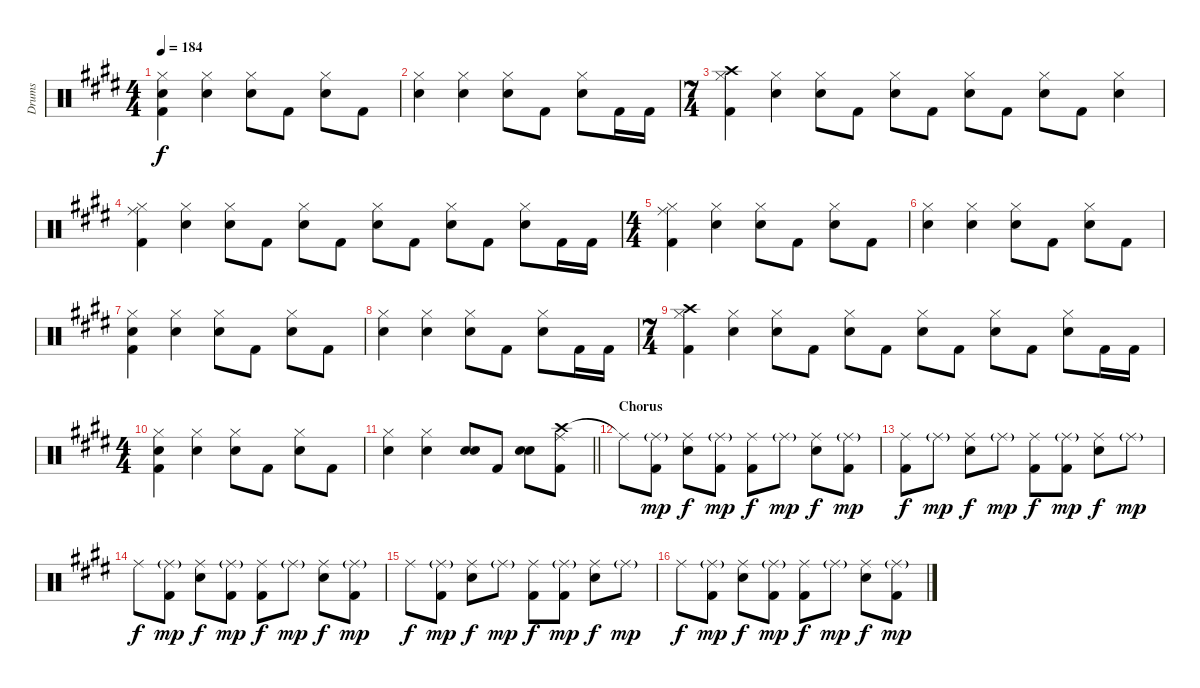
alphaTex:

\track ("Drums" "Drums") {instrument percussion}
\staff {score}
\articulation defaults
\ts (4 4)
\tempo 184
\clef neutral
\ks c#minor
("Hi-Hat (closed)" "Snare (hit) 2" "Kick (hit) 2").4{dy f} ("Hi-Hat (closed)" "Snare (hit) 2").4 ("Hi-Hat (closed)" "Snare (hit) 2").8 "Kick (hit) 2".8 ("Hi-Hat (closed)" "Snare (hit) 2").8 "Kick (hit) 2".8 |
("Hi-Hat (closed)" "Snare (hit) 2").4 ("Hi-Hat (closed)" "Snare (hit) 2").4 ("Hi-Hat (closed)" "Snare (hit) 2").8 "Kick (hit) 2".8 ("Hi-Hat (closed)" "Snare (hit) 2").8 "Kick (hit) 2".16 "Kick (hit) 2".16 |
\ts (7 4)
("Crash high (hit)" "Hi-Hat (closed)" "Kick (hit) 2").4 ("Hi-Hat (closed)" "Snare (hit) 2").4 ("Hi-Hat (closed)" "Snare (hit) 2").8 "Kick (hit) 2".8 ("Hi-Hat (closed)" "Snare (hit) 2").8 "Kick (hit) 2".8 ("Hi-Hat (closed)" "Snare (hit) 2").8 "Kick (hit) 2".8 ("Hi-Hat (closed)" "Snare (hit) 2").8 "Kick (hit) 2".8 ("Hi-Hat (closed)" "Snare (hit) 2").4 |
("Ride (middle)" "Hi-Hat (closed)" "Kick (hit) 2").4 ("Hi-Hat (closed)" "Snare (hit) 2").4 ("Hi-Hat (closed)" "Snare (hit) 2").8 "Kick (hit) 2".8 ("Hi-Hat (closed)" "Snare (hit) 2").8 "Kick (hit) 2".8 ("Hi-Hat (closed)" "Snare (hit) 2").8 "Kick (hit) 2".8 ("Hi-Hat (closed)" "Snare (hit) 2").8 "Kick (hit) 2".8 ("Hi-Hat (closed)" "Snare (hit) 2").8 "Kick (hit) 2".16 "Kick (hit) 2".16 |
\ts (4 4)
("Ride (middle)" "Hi-Hat (closed)" "Kick (hit) 2").4 ("Hi-Hat (closed)" "Snare (hit) 2").4 ("Hi-Hat (closed)" "Snare (hit) 2").8 "Kick (hit) 2".8 ("Hi-Hat (closed)" "Snare (hit) 2").8 "Kick (hit) 2".8 |
("Hi-Hat (closed)" "Snare (hit) 2").4 ("Hi-Hat (closed)" "Snare (hit) 2").4 ("Hi-Hat (closed)" "Snare (hit) 2").8 "Kick (hit) 2".8 ("Hi-Hat (closed)" "Snare (hit) 2").8 "Kick (hit) 2".8 |
("Hi-Hat (closed)" "Snare (hit) 2" "Kick (hit) 2").4 ("Hi-Hat (closed)" "Snare (hit) 2").4 ("Hi-Hat (closed)" "Snare (hit) 2").8 "Kick (hit) 2".8 ("Hi-Hat (closed)" "Snare (hit) 2").8 "Kick (hit) 2".8 |
("Hi-Hat (closed)" "Snare (hit) 2").4 ("Hi-Hat (closed)" "Snare (hit) 2").4 ("Hi-Hat (closed)" "Snare (hit) 2").8 "Kick (hit) 2".8 ("Hi-Hat (closed)" "Snare (hit) 2").8 "Kick (hit) 2".16 "Kick (hit) 2".16 |
\ts (7 4)
("Crash high (hit)" "Hi-Hat (closed)" "Kick (hit) 2").4 ("Hi-Hat (closed)" "Snare (hit) 2").4 ("Hi-Hat (closed)" "Snare (hit) 2").8 "Kick (hit) 2".8 ("Hi-Hat (closed)" "Snare (hit) 2").8 "Kick (hit) 2".8 ("Hi-Hat (closed)" "Snare (hit) 2").8 "Kick (hit) 2".8 ("Hi-Hat (closed)" "Snare (hit) 2").8 "Kick (hit) 2".8 ("Hi-Hat (closed)" "Snare (hit) 2").8 "Kick (hit) 2".16 "Kick (hit) 2".16 |
\ts (4 4)
("Hi-Hat (closed)" "Snare (hit) 2" "Kick (hit) 2").4 ("Hi-Hat (closed)" "Snare (hit) 2").4 ("Hi-Hat (closed)" "Snare (hit) 2").8 "Kick (hit) 2".8 ("Hi-Hat (closed)" "Snare (hit) 2").8 "Kick (hit) 2".8 |
\barLineRight lightlight
("Hi-Hat (closed)" "Snare (hit) 2").4 ("Hi-Hat (closed)" "Snare (hit) 2").4 ("Snare (hit) 2" "Electric Snare (hit)").8 "Kick (hit) 2".8 ("Snare (hit) 2" "Electric Snare (hit)").8 ("Crash high (hit)" "Ride (middle)" "Kick (hit) 2").8 |
\section ("" "Chorus")
"Ride (middle)"{t}.8 ("Ride (middle)"{g} "Kick (hit) 2").8{dy mp} ("Ride (middle)" "Snare (hit) 2").8{dy f} ("Ride (middle)"{g} "Kick (hit) 2").8{dy mp} ("Ride (middle)" "Kick (hit) 2").8{dy f} "Ride (middle)"{g}.8{dy mp} ("Ride (middle)" "Snare (hit) 2").8{dy f} ("Ride (middle)"{g} "Kick (hit) 2").8{dy mp} |
("Ride (middle)" "Kick (hit) 2").8{dy f} "Ride (middle)"{g}.8{dy mp} ("Ride (middle)" "Snare (hit) 2").8{dy f} "Ride (middle)"{g}.8{dy mp} ("Ride (middle)" "Kick (hit) 2").8{dy f} ("Ride (middle)"{g} "Kick (hit) 2").8{dy mp} ("Ride (middle)" "Snare (hit) 2").8{dy f} "Ride (middle)"{g}.8{dy mp} |
"Ride (middle)".8{dy f} ("Ride (middle)"{g} "Kick (hit) 2").8{dy mp} ("Ride (middle)" "Snare (hit) 2").8{dy f} ("Ride (middle)"{g} "Kick (hit) 2").8{dy mp} ("Ride (middle)" "Kick (hit) 2").8{dy f} "Ride (middle)"{g}.8{dy mp} ("Ride (middle)" "Snare (hit) 2").8{dy f} ("Ride (middle)"{g} "Kick (hit) 2").8{dy mp} |
"Ride (middle)".8{dy f} ("Ride (middle)"{g} "Kick (hit) 2").8{dy mp} ("Ride (middle)" "Snare (hit) 2").8{dy f} "Ride (middle)"{g}.8{dy mp} ("Ride (middle)" "Kick (hit) 2").8{dy f} ("Ride (middle)"{g} "Kick (hit) 2").8{dy mp} ("Ride (middle)" "Snare (hit) 2").8{dy f} "Ride (middle)"{g}.8{dy mp} |
"Ride (middle)".8{dy f} ("Ride (middle)"{g} "Kick (hit) 2").8{dy mp} ("Ride (middle)" "Snare (hit) 2").8{dy f} ("Ride (middle)"{g} "Kick (hit) 2").8{dy mp} ("Ride (middle)" "Kick (hit) 2").8{dy f} "Ride (middle)"{g}.8{dy mp} ("Ride (middle)" "Snare (hit) 2").8{dy f} ("Ride (middle)"{g} "Kick (hit) 2").8{dy mp}
